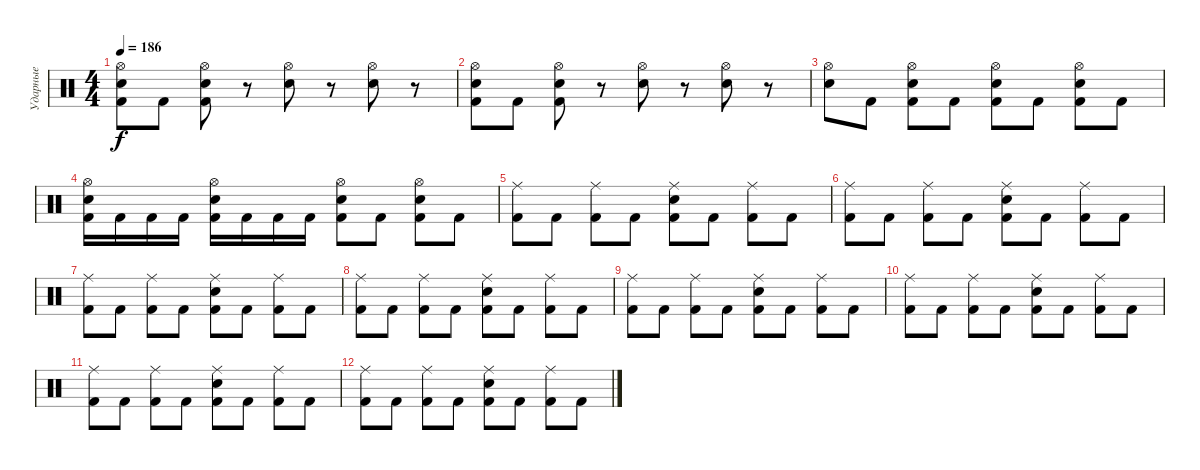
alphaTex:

\track ("Ударные" "Ударные") {instrument percussion}
\staff {score}
\articulation defaults
\ts (4 4)
\tempo 186
\clef neutral
\ks c
("Hi-Hat (open)" "Snare (hit) 2" "Kick (hit) 2").8{dy f} "Kick (hit) 2".8 ("Hi-Hat (open)" "Snare (hit) 2" "Kick (hit) 2").8 r.8 ("Hi-Hat (open)" "Snare (hit) 2").8 r.8 ("Hi-Hat (open)" "Snare (hit) 2").8 r.8 |
("Hi-Hat (open)" "Snare (hit) 2" "Kick (hit) 2").8 "Kick (hit) 2".8 ("Hi-Hat (open)" "Snare (hit) 2" "Kick (hit) 2").8 r.8 ("Hi-Hat (open)" "Snare (hit) 2").8 r.8 ("Hi-Hat (open)" "Snare (hit) 2").8 r.8 |
("Hi-Hat (open)" "Snare (hit) 2").8 "Kick (hit) 2".8 ("Hi-Hat (open)" "Snare (hit) 2" "Kick (hit) 2").8 "Kick (hit) 2".8 ("Hi-Hat (open)" "Snare (hit) 2" "Kick (hit) 2").8 "Kick (hit) 2".8 ("Hi-Hat (open)" "Snare (hit) 2" "Kick (hit) 2").8 "Kick (hit) 2".8 |
("Hi-Hat (open)" "Snare (hit) 2" "Kick (hit) 2").16 "Kick (hit) 2".16 "Kick (hit) 2".16 "Kick (hit) 2".16 ("Hi-Hat (open)" "Snare (hit) 2" "Kick (hit) 2").16 "Kick (hit) 2".16 "Kick (hit) 2".16 "Kick (hit) 2".16 ("Hi-Hat (open)" "Snare (hit) 2" "Kick (hit) 2").8 "Kick (hit) 2".8 ("Hi-Hat (open)" "Snare (hit) 2" "Kick (hit) 2").8 "Kick (hit) 2".8 |
("Kick (hit) 2" "Ride (middle)").8 "Kick (hit) 2".8 ("Kick (hit) 2" "Ride (middle)").8 "Kick (hit) 2".8 ("Kick (hit) 2" "Snare (hit) 2" "Ride (middle)").8 "Kick (hit) 2".8 ("Kick (hit) 2" "Ride (middle)").8 "Kick (hit) 2".8 |
("Kick (hit) 2" "Ride (middle)").8 "Kick (hit) 2".8 ("Kick (hit) 2" "Ride (middle)").8 "Kick (hit) 2".8 ("Kick (hit) 2" "Snare (hit) 2" "Ride (middle)").8 "Kick (hit) 2".8 ("Kick (hit) 2" "Ride (middle)").8 "Kick (hit) 2".8 |
("Kick (hit) 2" "Ride (middle)").8 "Kick (hit) 2".8 ("Kick (hit) 2" "Ride (middle)").8 "Kick (hit) 2".8 ("Kick (hit) 2" "Snare (hit) 2" "Ride (middle)").8 "Kick (hit) 2".8 ("Kick (hit) 2" "Ride (middle)").8 "Kick (hit) 2".8 |
("Kick (hit) 2" "Ride (middle)").8 "Kick (hit) 2".8 ("Kick (hit) 2" "Ride (middle)").8 "Kick (hit) 2".8 ("Kick (hit) 2" "Snare (hit) 2" "Ride (middle)").8 "Kick (hit) 2".8 ("Kick (hit) 2" "Ride (middle)").8 "Kick (hit) 2".8 |
("Kick (hit) 2" "Ride (middle)").8 "Kick (hit) 2".8 ("Kick (hit) 2" "Ride (middle)").8 "Kick (hit) 2".8 ("Kick (hit) 2" "Snare (hit) 2" "Ride (middle)").8 "Kick (hit) 2".8 ("Kick (hit) 2" "Ride (middle)").8 "Kick (hit) 2".8 |
("Kick (hit) 2" "Ride (middle)").8 "Kick (hit) 2".8 ("Kick (hit) 2" "Ride (middle)").8 "Kick (hit) 2".8 ("Kick (hit) 2" "Snare (hit) 2" "Ride (middle)").8 "Kick (hit) 2".8 ("Kick (hit) 2" "Ride (middle)").8 "Kick (hit) 2".8 |
("Kick (hit) 2" "Ride (middle)").8 "Kick (hit) 2".8 ("Kick (hit) 2" "Ride (middle)").8 "Kick (hit) 2".8 ("Kick (hit) 2" "Snare (hit) 2" "Ride (middle)").8 "Kick (hit) 2".8 ("Kick (hit) 2" "Ride (middle)").8 "Kick (hit) 2".8 |
("Kick (hit) 2" "Ride (middle)").8 "Kick (hit) 2".8 ("Kick (hit) 2" "Ride (middle)").8 "Kick (hit) 2".8 ("Kick (hit) 2" "Snare (hit) 2" "Ride (middle)").8 "Kick (hit) 2".8 ("Kick (hit) 2" "Ride (middle)").8 "Kick (hit) 2".8
